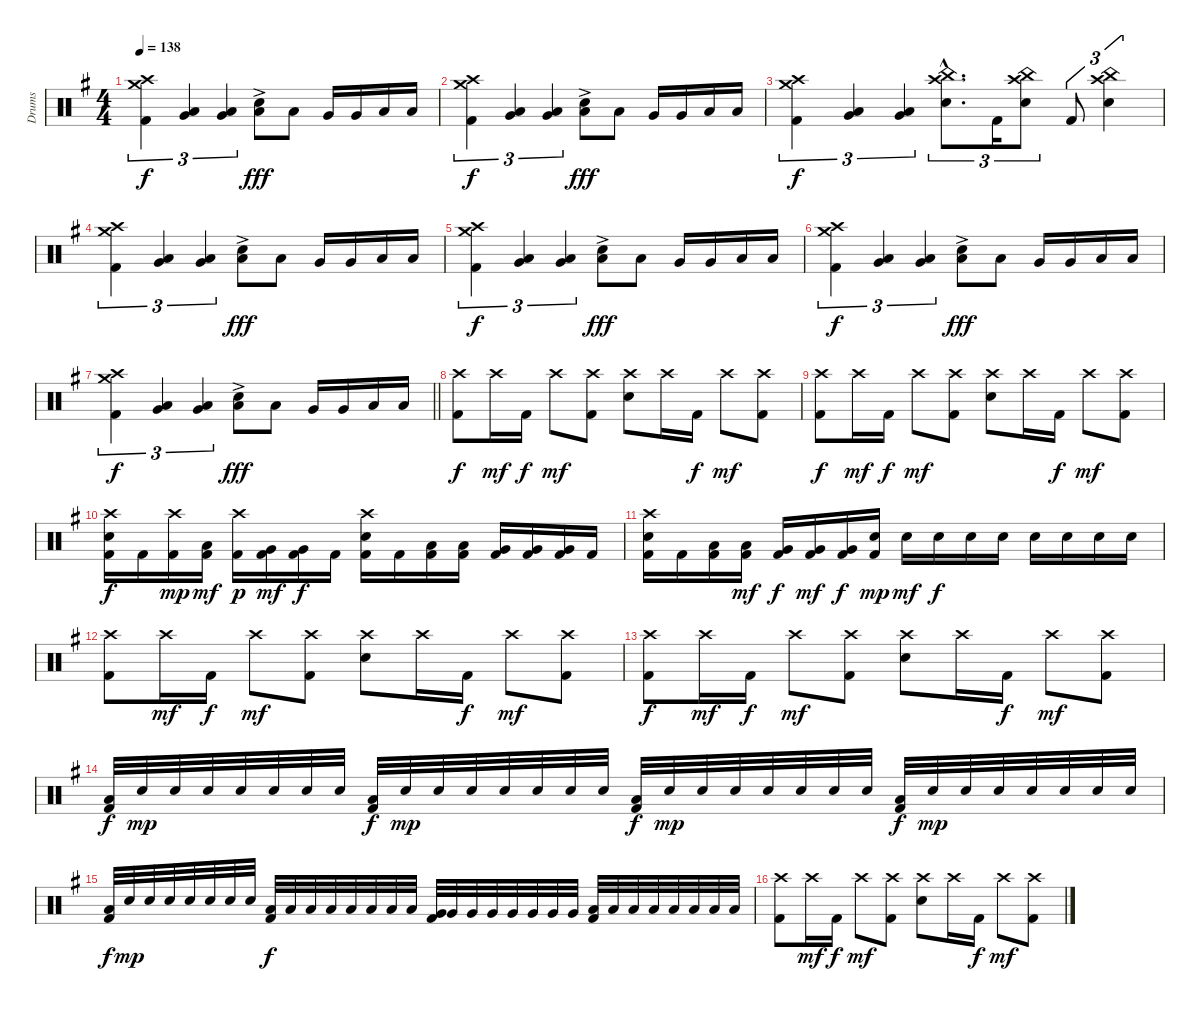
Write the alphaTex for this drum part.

\track ("Drums" "Drums") {instrument percussion}
\staff {score}
\articulation defaults
\ts (4 4)
\tempo 138
\clef neutral
\ks eminor
("Crash high (hit)" "Crash medium (hit)" "Kick (hit) 2").4{tu (3 2) dy f} ("Low Tom (hit)" "Very Low Tom (hit)").4{tu (3 2)} ("Very Low Tom (hit)" "Low Floor Tom (hit)").4{tu (3 2)} ("Snare (hit) 2"{ac} "Low Floor Tom (hit)").8{dy fff} "Low Tom (hit)".8 "Very Low Tom (hit)".16 "Very Low Tom (hit)".16 "Low Floor Tom (hit)".16 "Low Floor Tom (hit)".16 |
("Crash high (hit)" "Crash medium (hit)" "Kick (hit) 2").4{tu (3 2) dy f} ("Low Tom (hit)" "Very Low Tom (hit)").4{tu (3 2)} ("Very Low Tom (hit)" "Low Floor Tom (hit)").4{tu (3 2)} ("Snare (hit) 2"{ac} "Low Floor Tom (hit)").8{dy fff} "Low Tom (hit)".8 "Very Low Tom (hit)".16 "Very Low Tom (hit)".16 "Low Floor Tom (hit)".16 "Low Floor Tom (hit)".16 |
("Crash high (hit)" "Crash medium (hit)" "Kick (hit) 2").4{tu (3 2) dy f} ("Low Tom (hit)" "Very Low Tom (hit)").4{tu (3 2)} ("Very Low Tom (hit)" "Low Floor Tom (hit)").4{tu (3 2)} ("China (hit)"{hac} "Crash high (hit)"{hac} "Snare (hit) 2"{hac}).8{d tu (3 2)} "Kick (hit) 2".16{tu (3 2)} ("China (hit)" "Crash high (hit)" "Snare (hit) 2").8{tu (3 2)} "Kick (hit) 2".8{tu (3 2)} ("China (hit)" "Crash high (hit)" "Snare (hit) 2").4{tu (3 2)} |
("Crash high (hit)" "Crash medium (hit)" "Kick (hit) 2").4{tu (3 2)} ("Low Tom (hit)" "Very Low Tom (hit)").4{tu (3 2)} ("Very Low Tom (hit)" "Low Floor Tom (hit)").4{tu (3 2)} ("Snare (hit) 2"{ac} "Low Floor Tom (hit)").8{dy fff} "Low Tom (hit)".8 "Very Low Tom (hit)".16 "Very Low Tom (hit)".16 "Low Floor Tom (hit)".16 "Low Floor Tom (hit)".16 |
("Crash high (hit)" "Crash medium (hit)" "Kick (hit) 2").4{tu (3 2) dy f} ("Low Tom (hit)" "Very Low Tom (hit)").4{tu (3 2)} ("Very Low Tom (hit)" "Low Floor Tom (hit)").4{tu (3 2)} ("Snare (hit) 2"{ac} "Low Floor Tom (hit)").8{dy fff} "Low Tom (hit)".8 "Very Low Tom (hit)".16 "Very Low Tom (hit)".16 "Low Floor Tom (hit)".16 "Low Floor Tom (hit)".16 |
("Crash high (hit)" "Crash medium (hit)" "Kick (hit) 2").4{tu (3 2) dy f} ("Low Tom (hit)" "Very Low Tom (hit)").4{tu (3 2)} ("Very Low Tom (hit)" "Low Floor Tom (hit)").4{tu (3 2)} ("Snare (hit) 2"{ac} "Low Floor Tom (hit)").8{dy fff} "Low Tom (hit)".8 "Very Low Tom (hit)".16 "Very Low Tom (hit)".16 "Low Floor Tom (hit)".16 "Low Floor Tom (hit)".16 |
\barLineRight lightlight
("Crash high (hit)" "Crash medium (hit)" "Kick (hit) 2").4{tu (3 2) dy f} ("Low Tom (hit)" "Very Low Tom (hit)").4{tu (3 2)} ("Very Low Tom (hit)" "Low Floor Tom (hit)").4{tu (3 2)} ("Snare (hit) 2"{ac} "Low Floor Tom (hit)").8{dy fff} "Low Tom (hit)".8 "Very Low Tom (hit)".16 "Very Low Tom (hit)".16 "Low Floor Tom (hit)".16 "Low Floor Tom (hit)".16 |
("Crash high (hit)" "Kick (hit) 2").8{dy f} "Crash high (hit)".16{dy mf} "Kick (hit) 2".16{dy f} "Crash high (hit)".8{dy mf} ("Crash high (hit)" "Kick (hit) 2").8 ("Crash high (hit)" "Snare (hit) 2").8 "Crash high (hit)".16 "Kick (hit) 2".16{dy f} "Crash high (hit)".8{dy mf} ("Crash high (hit)" "Kick (hit) 2").8 |
("Crash high (hit)" "Kick (hit) 2").8{dy f} "Crash high (hit)".16{dy mf} "Kick (hit) 2".16{dy f} "Crash high (hit)".8{dy mf} ("Crash high (hit)" "Kick (hit) 2").8 ("Crash high (hit)" "Snare (hit) 2").8 "Crash high (hit)".16 "Kick (hit) 2".16{dy f} "Crash high (hit)".8{dy mf} ("Crash high (hit)" "Kick (hit) 2").8 |
("Crash high (hit)" "Snare (hit) 2" "Kick (hit) 2").16{dy f} "Kick (hit) 2".16 ("Crash high (hit)" "Kick (hit) 2").16{dy mp} ("Low Tom (hit)" "Kick (hit) 2").16{dy mf} ("Crash high (hit)" "Kick (hit) 2").16{dy p} ("Very Low Tom (hit)" "Kick (hit) 2").16{dy mf} ("Very Low Tom (hit)" "Kick (hit) 2").16{dy f} "Kick (hit) 2".16 ("Crash high (hit)" "Snare (hit) 2" "Kick (hit) 2").16 "Kick (hit) 2".16 ("Low Tom (hit)" "Kick (hit) 2").16 ("Low Tom (hit)" "Kick (hit) 2").16 ("Very Low Tom (hit)" "Kick (hit) 2").16 ("Very Low Tom (hit)" "Kick (hit) 2").16 ("Very Low Tom (hit)" "Kick (hit) 2").16 "Kick (hit) 2".16 |
("Crash high (hit)" "Snare (hit) 2" "Kick (hit) 2").16 "Kick (hit) 2".16 ("Low Tom (hit)" "Kick (hit) 2").16 ("Low Tom (hit)" "Kick (hit) 2").16{dy mf} ("Very Low Tom (hit)" "Kick (hit) 2").16{dy f} ("Very Low Tom (hit)" "Kick (hit) 2").16{dy mf} ("Very Low Tom (hit)" "Kick (hit) 2").16{dy f} ("Snare (hit) 2" "Kick (hit) 2").16{dy mp} "Snare (hit) 2".16{dy mf} "Snare (hit) 2".16{dy f} "Snare (hit) 2".16 "Snare (hit) 2".16 "Snare (hit) 2".16 "Snare (hit) 2".16 "Snare (hit) 2".16 "Snare (hit) 2".16 |
("Crash high (hit)" "Kick (hit) 2").8 "Crash high (hit)".16{dy mf} "Kick (hit) 2".16{dy f} "Crash high (hit)".8{dy mf} ("Crash high (hit)" "Kick (hit) 2").8 ("Crash high (hit)" "Snare (hit) 2").8 "Crash high (hit)".16 "Kick (hit) 2".16{dy f} "Crash high (hit)".8{dy mf} ("Crash high (hit)" "Kick (hit) 2").8 |
("Crash high (hit)" "Kick (hit) 2").8{dy f} "Crash high (hit)".16{dy mf} "Kick (hit) 2".16{dy f} "Crash high (hit)".8{dy mf} ("Crash high (hit)" "Kick (hit) 2").8 ("Crash high (hit)" "Snare (hit) 2").8 "Crash high (hit)".16 "Kick (hit) 2".16{dy f} "Crash high (hit)".8{dy mf} ("Crash high (hit)" "Kick (hit) 2").8 |
("Low Tom (hit)" "Kick (hit) 2").32{dy f} "Snare (hit) 2".32{dy mp} "Snare (hit) 2".32 "Snare (hit) 2".32 "Snare (hit) 2".32 "Snare (hit) 2".32 "Snare (hit) 2".32 "Snare (hit) 2".32 ("Low Tom (hit)" "Kick (hit) 2").32{dy f} "Snare (hit) 2".32{dy mp} "Snare (hit) 2".32 "Snare (hit) 2".32 "Snare (hit) 2".32 "Snare (hit) 2".32 "Snare (hit) 2".32 "Snare (hit) 2".32 ("Low Tom (hit)" "Kick (hit) 2").32{dy f} "Snare (hit) 2".32{dy mp} "Snare (hit) 2".32 "Snare (hit) 2".32 "Snare (hit) 2".32 "Snare (hit) 2".32 "Snare (hit) 2".32 "Snare (hit) 2".32 ("Low Tom (hit)" "Kick (hit) 2").32{dy f} "Snare (hit) 2".32{dy mp} "Snare (hit) 2".32 "Snare (hit) 2".32 "Snare (hit) 2".32 "Snare (hit) 2".32 "Snare (hit) 2".32 "Snare (hit) 2".32 |
("Low Tom (hit)" "Kick (hit) 2").32{dy f} "Snare (hit) 2".32{dy mp} "Snare (hit) 2".32 "Snare (hit) 2".32 "Snare (hit) 2".32 "Snare (hit) 2".32 "Snare (hit) 2".32 "Snare (hit) 2".32 ("Low Tom (hit)" "Kick (hit) 2").32{dy f} "Low Tom (hit)".32 "Low Tom (hit)".32 "Low Tom (hit)".32 "Low Tom (hit)".32 "Low Tom (hit)".32 "Low Tom (hit)".32 "Low Tom (hit)".32 ("Very Low Tom (hit)" "Kick (hit) 2").32 "Very Low Tom (hit)".32 "Very Low Tom (hit)".32 "Very Low Tom (hit)".32 "Very Low Tom (hit)".32 "Very Low Tom (hit)".32 "Very Low Tom (hit)".32 "Very Low Tom (hit)".32 ("Low Tom (hit)" "Kick (hit) 2").32 "Low Floor Tom (hit)".32 "Low Floor Tom (hit)".32 "Low Floor Tom (hit)".32 "Low Floor Tom (hit)".32 "Low Floor Tom (hit)".32 "Low Floor Tom (hit)".32 "Low Floor Tom (hit)".32 |
("Crash high (hit)" "Kick (hit) 2").8 "Crash high (hit)".16{dy mf} "Kick (hit) 2".16{dy f} "Crash high (hit)".8{dy mf} ("Crash high (hit)" "Kick (hit) 2").8 ("Crash high (hit)" "Snare (hit) 2").8 "Crash high (hit)".16 "Kick (hit) 2".16{dy f} "Crash high (hit)".8{dy mf} ("Crash high (hit)" "Kick (hit) 2").8
